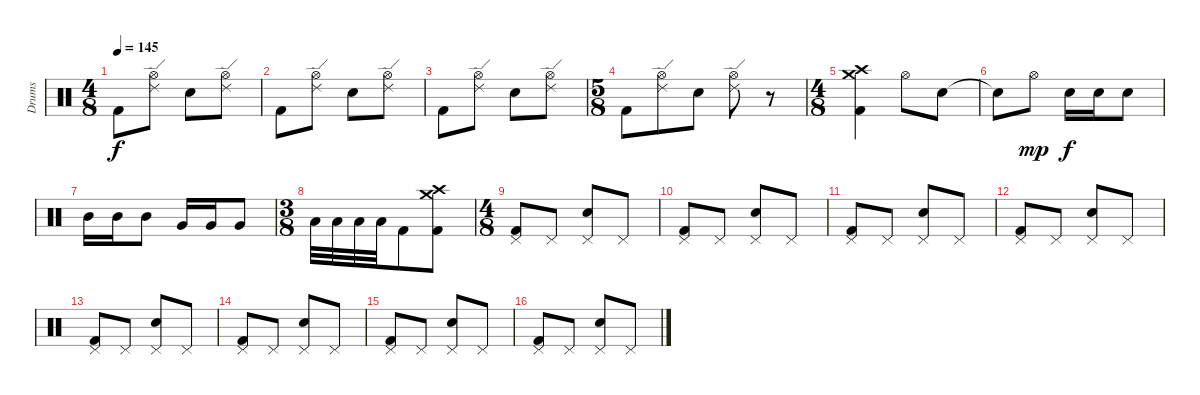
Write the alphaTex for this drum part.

\track ("Drums" "Drums") {instrument percussion}
\staff {score}
\articulation defaults
\ts (4 8)
\tempo 145
\clef neutral
\ks c "Kick (hit) 2".8{dy f}
("Ride (edge) 2" "Hi-Hat (open)").8 "Snare (hit) 2".8 ("Ride (edge) 2" "Hi-Hat (open)").8 |
"Kick (hit) 2".8 ("Ride (edge) 2" "Hi-Hat (open)").8 "Snare (hit) 2".8 ("Ride (edge) 2" "Hi-Hat (open)").8 |
"Kick (hit) 2".8 ("Ride (edge) 2" "Hi-Hat (open)").8 "Snare (hit) 2".8 ("Ride (edge) 2" "Hi-Hat (open)").8 |
\ts (5 8)
"Kick (hit) 2".8 ("Ride (edge) 2" "Hi-Hat (open)").8 "Snare (hit) 2".8 ("Ride (edge) 2" "Hi-Hat (open)").8 r.8 |
\ts (4 8)
("Crash medium (hit)" "Crash high (hit)" "Kick (hit) 2").4 "Hi-Hat (open)".8 "Snare (hit) 2".8 |
"Snare (hit)"{t}.8 "Hi-Hat (open)".8{dy mp} "Snare (hit) 2".16{dy f} "Snare (hit) 2".16 "Snare (hit) 2".8 |
"Mid Tom (hit)".16 "Mid Tom (hit)".16 "Mid Tom (hit)".8 "Very Low Tom (hit)".16 "Very Low Tom (hit)".16 "Very Low Tom (hit)".8 |
\ts (3 8)
"Low Floor Tom (hit)".32 "Low Floor Tom (hit)".32 "Low Floor Tom (hit)".32 "Low Floor Tom (hit)".32 "Kick (hit) 2".8 ("Crash medium (hit)" "Crash high (hit)" "Kick (hit) 2").8 |
\ts (4 8)
("Pedal Hi-Hat (hit)" "Kick (hit) 2").8 "Pedal Hi-Hat (hit)".8 ("Pedal Hi-Hat (hit)" "Snare (hit) 2").8 "Pedal Hi-Hat (hit)".8 |
("Pedal Hi-Hat (hit)" "Kick (hit) 2").8 "Pedal Hi-Hat (hit)".8 ("Pedal Hi-Hat (hit)" "Snare (hit) 2").8 "Pedal Hi-Hat (hit)".8 |
("Pedal Hi-Hat (hit)" "Kick (hit) 2").8 "Pedal Hi-Hat (hit)".8 ("Pedal Hi-Hat (hit)" "Snare (hit) 2").8 "Pedal Hi-Hat (hit)".8 |
("Pedal Hi-Hat (hit)" "Kick (hit) 2").8 "Pedal Hi-Hat (hit)".8 ("Pedal Hi-Hat (hit)" "Snare (hit) 2").8 "Pedal Hi-Hat (hit)".8 |
("Pedal Hi-Hat (hit)" "Kick (hit) 2").8 "Pedal Hi-Hat (hit)".8 ("Pedal Hi-Hat (hit)" "Snare (hit) 2").8 "Pedal Hi-Hat (hit)".8 |
("Pedal Hi-Hat (hit)" "Kick (hit) 2").8 "Pedal Hi-Hat (hit)".8 ("Pedal Hi-Hat (hit)" "Snare (hit) 2").8 "Pedal Hi-Hat (hit)".8 |
("Pedal Hi-Hat (hit)" "Kick (hit) 2").8 "Pedal Hi-Hat (hit)".8 ("Pedal Hi-Hat (hit)" "Snare (hit) 2").8 "Pedal Hi-Hat (hit)".8 |
("Pedal Hi-Hat (hit)" "Kick (hit) 2").8 "Pedal Hi-Hat (hit)".8 ("Pedal Hi-Hat (hit)" "Snare (hit) 2").8 "Pedal Hi-Hat (hit)".8
